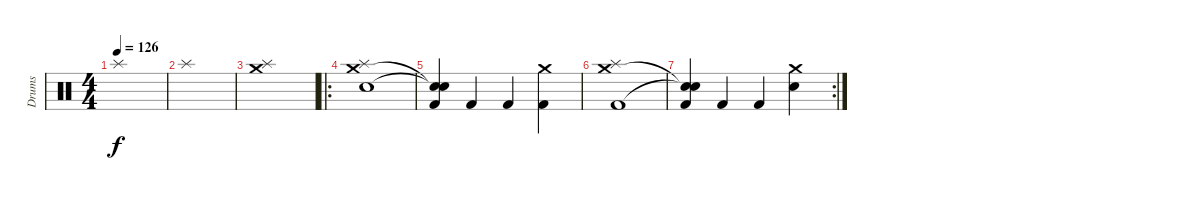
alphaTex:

\track ("Drums" "Drums") {instrument percussion}
\staff {score}
\articulation defaults
\ts (4 4)
\tempo 126
\clef neutral
\ks c "Splash (hit)".1{dy f}
|
"Splash (hit)".1 |
("Crash medium (hit)" "Splash (hit)").1 |
\ro
("Crash medium (hit)" "Snare (hit) 2" "Splash (hit)").1 |
("Snare (hit)"{t} "Snare (hit)"{t} "Kick (hit) 2").4 "Kick (hit) 2".4 "Kick (hit) 2".4 ("Crash medium (hit)" "Kick (hit) 2").4 |
("Crash medium (hit)" "Kick (hit) 2" "Splash (hit)").1 |
\rc 2
("Snare (hit)"{t} "Snare (hit)"{t} "Kick (hit) 2").4 "Kick (hit) 2".4 "Kick (hit) 2".4 ("Crash medium (hit)" "Snare (hit) 2").4
